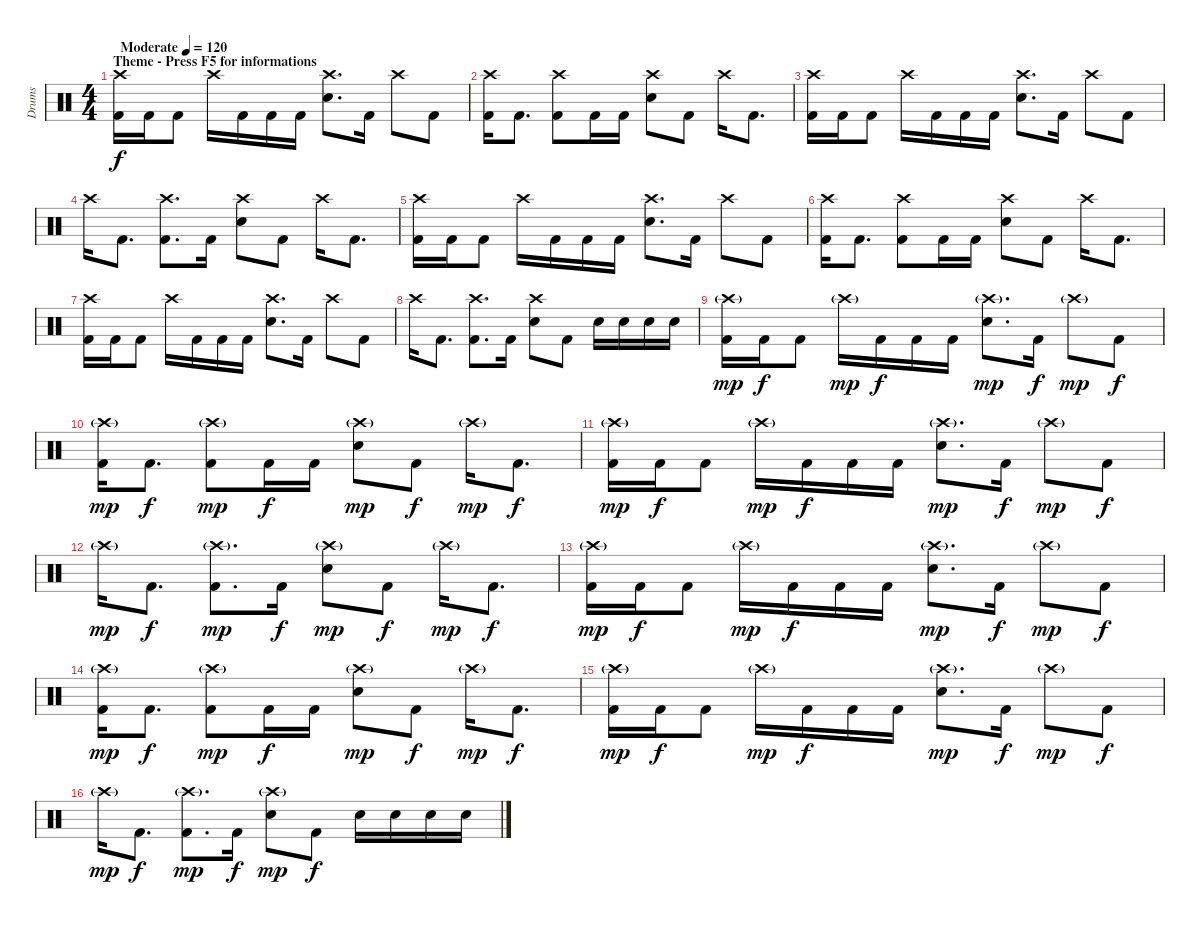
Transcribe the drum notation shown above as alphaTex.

\track ("Drums" "Drums") {instrument percussion}
\staff {score}
\articulation defaults
\ts (4 4)
\section ("" "Theme - Press F5 for informations")
\tempo (120 "Moderate")
\clef neutral
\ks c
("Crash high (hit)" "Kick (hit) 2").16{dy f} "Kick (hit) 2".16 "Kick (hit) 2".8 "Crash high (hit)".16 "Kick (hit) 2".16 "Kick (hit) 2".16 "Kick (hit) 2".16 ("Crash high (hit)" "Electric Snare (hit)").8{d} "Kick (hit) 2".16 "Crash high (hit)".8 "Kick (hit) 2".8 |
("Crash high (hit)" "Kick (hit) 2").16 "Kick (hit) 2".8{d} ("Crash high (hit)" "Kick (hit) 2").8 "Kick (hit) 2".16 "Kick (hit) 2".16 ("Crash high (hit)" "Electric Snare (hit)").8 "Kick (hit) 2".8 "Crash high (hit)".16 "Kick (hit) 2".8{d} |
("Crash high (hit)" "Kick (hit) 2").16 "Kick (hit) 2".16 "Kick (hit) 2".8 "Crash high (hit)".16 "Kick (hit) 2".16 "Kick (hit) 2".16 "Kick (hit) 2".16 ("Crash high (hit)" "Electric Snare (hit)").8{d} "Kick (hit) 2".16 "Crash high (hit)".8 "Kick (hit) 2".8 |
"Crash high (hit)".16 "Kick (hit) 2".8{d} ("Crash high (hit)" "Kick (hit) 2").8{d} "Kick (hit) 2".16 ("Crash high (hit)" "Electric Snare (hit)").8 "Kick (hit) 2".8 "Crash high (hit)".16 "Kick (hit) 2".8{d} |
("Crash high (hit)" "Kick (hit) 2").16 "Kick (hit) 2".16 "Kick (hit) 2".8 "Crash high (hit)".16 "Kick (hit) 2".16 "Kick (hit) 2".16 "Kick (hit) 2".16 ("Crash high (hit)" "Electric Snare (hit)").8{d} "Kick (hit) 2".16 "Crash high (hit)".8 "Kick (hit) 2".8 |
("Crash high (hit)" "Kick (hit) 2").16 "Kick (hit) 2".8{d} ("Crash high (hit)" "Kick (hit) 2").8 "Kick (hit) 2".16 "Kick (hit) 2".16 ("Crash high (hit)" "Electric Snare (hit)").8 "Kick (hit) 2".8 "Crash high (hit)".16 "Kick (hit) 2".8{d} |
("Crash high (hit)" "Kick (hit) 2").16 "Kick (hit) 2".16 "Kick (hit) 2".8 "Crash high (hit)".16 "Kick (hit) 2".16 "Kick (hit) 2".16 "Kick (hit) 2".16 ("Crash high (hit)" "Electric Snare (hit)").8{d} "Kick (hit) 2".16 "Crash high (hit)".8 "Kick (hit) 2".8 |
"Crash high (hit)".16 "Kick (hit) 2".8{d} ("Crash high (hit)" "Kick (hit) 2").8{d} "Kick (hit) 2".16 ("Crash high (hit)" "Electric Snare (hit)").8 "Kick (hit) 2".8 "Electric Snare (hit)".16 "Electric Snare (hit)".16 "Electric Snare (hit)".16 "Electric Snare (hit)".16 |
("Crash high (hit)"{g} "Kick (hit) 2").16{dy mp} "Kick (hit) 2".16{dy f} "Kick (hit) 2".8 "Crash high (hit)"{g}.16{dy mp} "Kick (hit) 2".16{dy f} "Kick (hit) 2".16 "Kick (hit) 2".16 ("Crash high (hit)"{g} "Electric Snare (hit)").8{d dy mp} "Kick (hit) 2".16{dy f} "Crash high (hit)"{g}.8{dy mp} "Kick (hit) 2".8{dy f} |
("Crash high (hit)"{g} "Kick (hit) 2").16{dy mp} "Kick (hit) 2".8{d dy f} ("Crash high (hit)"{g} "Kick (hit) 2").8{dy mp} "Kick (hit) 2".16{dy f} "Kick (hit) 2".16 ("Crash high (hit)"{g} "Electric Snare (hit)").8{dy mp} "Kick (hit) 2".8{dy f} "Crash high (hit)"{g}.16{dy mp} "Kick (hit) 2".8{d dy f} |
("Crash high (hit)"{g} "Kick (hit) 2").16{dy mp} "Kick (hit) 2".16{dy f} "Kick (hit) 2".8 "Crash high (hit)"{g}.16{dy mp} "Kick (hit) 2".16{dy f} "Kick (hit) 2".16 "Kick (hit) 2".16 ("Crash high (hit)"{g} "Electric Snare (hit)").8{d dy mp} "Kick (hit) 2".16{dy f} "Crash high (hit)"{g}.8{dy mp} "Kick (hit) 2".8{dy f} |
"Crash high (hit)"{g}.16{dy mp} "Kick (hit) 2".8{d dy f} ("Crash high (hit)"{g} "Kick (hit) 2").8{d dy mp} "Kick (hit) 2".16{dy f} ("Crash high (hit)"{g} "Electric Snare (hit)").8{dy mp} "Kick (hit) 2".8{dy f} "Crash high (hit)"{g}.16{dy mp} "Kick (hit) 2".8{d dy f} |
("Crash high (hit)"{g} "Kick (hit) 2").16{dy mp} "Kick (hit) 2".16{dy f} "Kick (hit) 2".8 "Crash high (hit)"{g}.16{dy mp} "Kick (hit) 2".16{dy f} "Kick (hit) 2".16 "Kick (hit) 2".16 ("Crash high (hit)"{g} "Electric Snare (hit)").8{d dy mp} "Kick (hit) 2".16{dy f} "Crash high (hit)"{g}.8{dy mp} "Kick (hit) 2".8{dy f} |
("Crash high (hit)"{g} "Kick (hit) 2").16{dy mp} "Kick (hit) 2".8{d dy f} ("Crash high (hit)"{g} "Kick (hit) 2").8{dy mp} "Kick (hit) 2".16{dy f} "Kick (hit) 2".16 ("Crash high (hit)"{g} "Electric Snare (hit)").8{dy mp} "Kick (hit) 2".8{dy f} "Crash high (hit)"{g}.16{dy mp} "Kick (hit) 2".8{d dy f} |
("Crash high (hit)"{g} "Kick (hit) 2").16{dy mp} "Kick (hit) 2".16{dy f} "Kick (hit) 2".8 "Crash high (hit)"{g}.16{dy mp} "Kick (hit) 2".16{dy f} "Kick (hit) 2".16 "Kick (hit) 2".16 ("Crash high (hit)"{g} "Electric Snare (hit)").8{d dy mp} "Kick (hit) 2".16{dy f} "Crash high (hit)"{g}.8{dy mp} "Kick (hit) 2".8{dy f} |
"Crash high (hit)"{g}.16{dy mp} "Kick (hit) 2".8{d dy f} ("Crash high (hit)"{g} "Kick (hit) 2").8{d dy mp} "Kick (hit) 2".16{dy f} ("Crash high (hit)"{g} "Electric Snare (hit)").8{dy mp} "Kick (hit) 2".8{dy f} "Electric Snare (hit)".16 "Electric Snare (hit)".16 "Electric Snare (hit)".16 "Electric Snare (hit)".16
